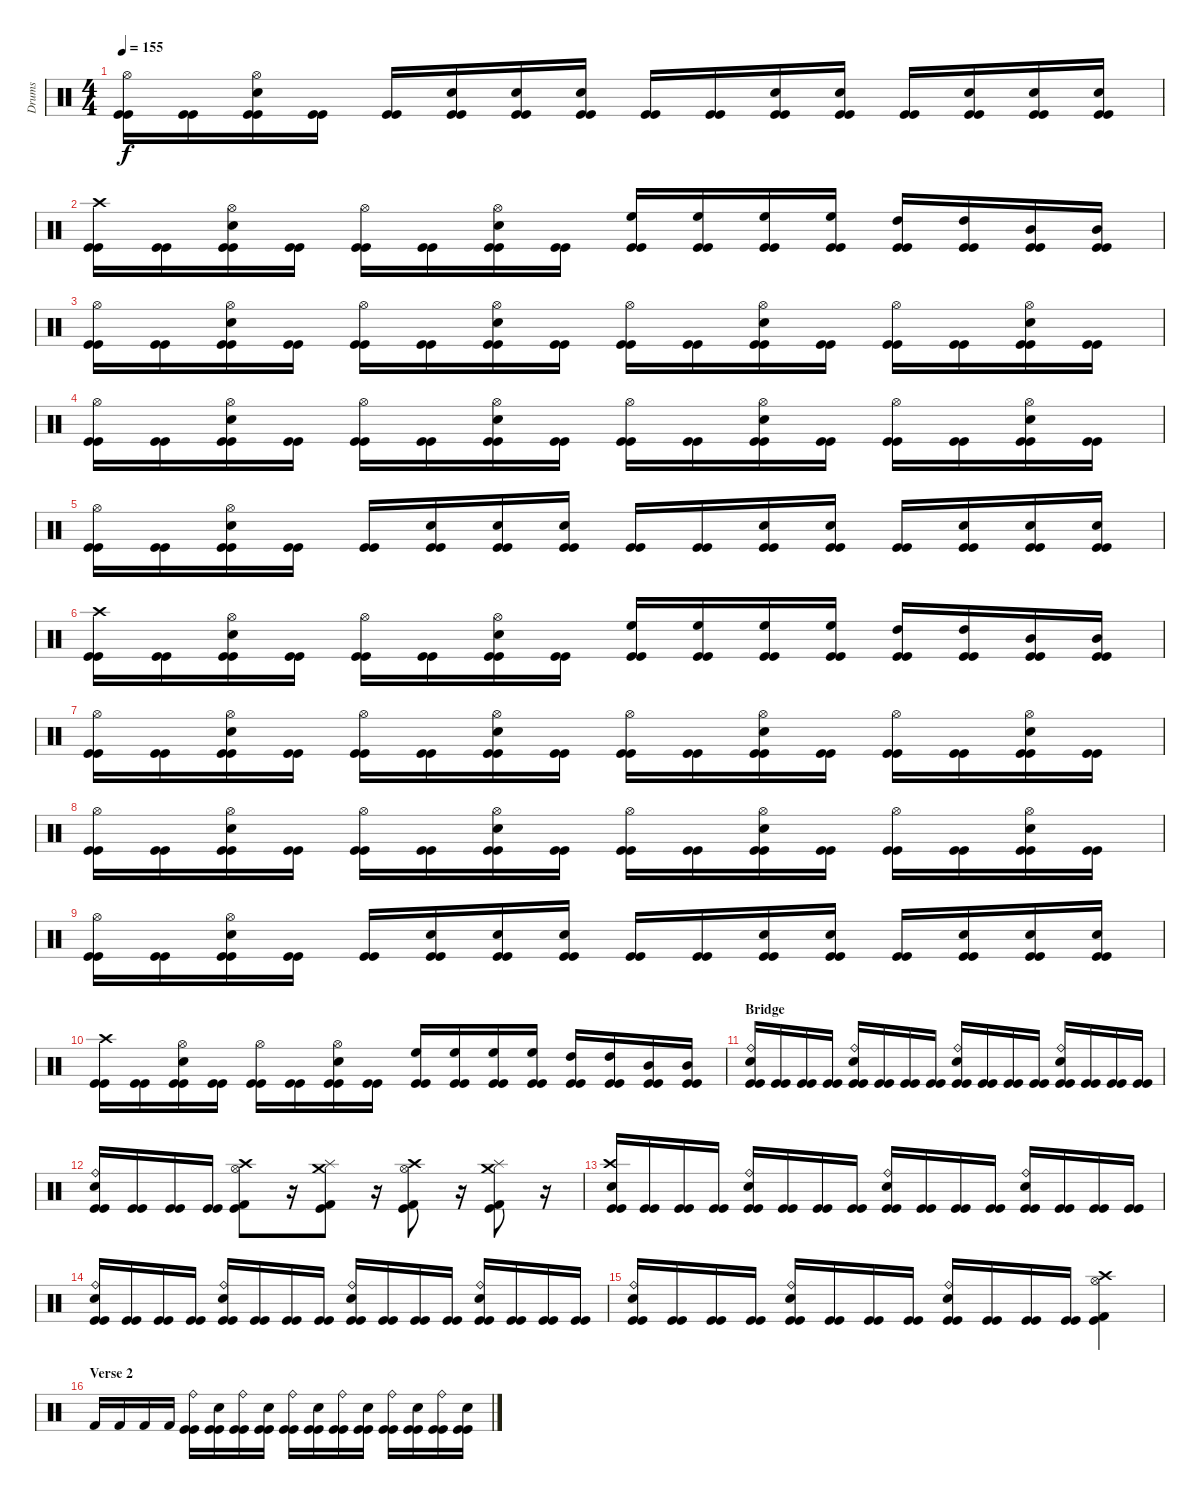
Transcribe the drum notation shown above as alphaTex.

\track ("Drums" "Drums") {instrument percussion}
\staff {score}
\articulation defaults
\ts (4 4)
\tempo 155
\clef neutral
\ks c
("Hi-Hat (open)" "Kick (hit)" "Kick (hit)").16{dy f} ("Kick (hit)" "Kick (hit)").16 ("Hi-Hat (open)" "Electric Snare (hit)" "Kick (hit)" "Kick (hit)").16 ("Kick (hit)" "Kick (hit)").16 ("Kick (hit)" "Kick (hit)").16 ("Electric Snare (hit)" "Kick (hit)" "Kick (hit)").16 ("Electric Snare (hit)" "Kick (hit)" "Kick (hit)").16 ("Electric Snare (hit)" "Kick (hit)" "Kick (hit)").16 ("Kick (hit)" "Kick (hit)").16 ("Kick (hit)" "Kick (hit)").16 ("Electric Snare (hit)" "Kick (hit)" "Kick (hit)").16 ("Electric Snare (hit)" "Kick (hit)" "Kick (hit)").16 ("Kick (hit)" "Kick (hit)").16 ("Electric Snare (hit)" "Kick (hit)" "Kick (hit)").16 ("Electric Snare (hit)" "Kick (hit)" "Kick (hit)").16 ("Electric Snare (hit)" "Kick (hit)" "Kick (hit)").16 |
("Crash high (hit)" "Kick (hit)" "Kick (hit)").16 ("Kick (hit)" "Kick (hit)").16 ("Hi-Hat (open)" "Electric Snare (hit)" "Kick (hit)" "Kick (hit)").16 ("Kick (hit)" "Kick (hit)").16 ("Hi-Hat (open)" "Kick (hit)" "Kick (hit)").16 ("Kick (hit)" "Kick (hit)").16 ("Hi-Hat (open)" "Electric Snare (hit)" "Kick (hit)" "Kick (hit)").16 ("Kick (hit)" "Kick (hit)").16 ("High Floor Tom (hit)" "Kick (hit)" "Kick (hit)").16 ("High Floor Tom (hit)" "Kick (hit)" "Kick (hit)").16 ("High Floor Tom (hit)" "Kick (hit)" "Kick (hit)").16 ("High Floor Tom (hit)" "Kick (hit)" "Kick (hit)").16 ("High Tom (hit)" "Kick (hit)" "Kick (hit)").16 ("High Tom (hit)" "Kick (hit)" "Kick (hit)").16 ("Mid Tom (hit)" "Kick (hit)" "Kick (hit)").16 ("Mid Tom (hit)" "Kick (hit)" "Kick (hit)").16 |
("Hi-Hat (open)" "Kick (hit)" "Kick (hit)").16 ("Kick (hit)" "Kick (hit)").16 ("Hi-Hat (open)" "Electric Snare (hit)" "Kick (hit)" "Kick (hit)").16 ("Kick (hit)" "Kick (hit)").16 ("Hi-Hat (open)" "Kick (hit)" "Kick (hit)").16 ("Kick (hit)" "Kick (hit)").16 ("Hi-Hat (open)" "Electric Snare (hit)" "Kick (hit)" "Kick (hit)").16 ("Kick (hit)" "Kick (hit)").16 ("Hi-Hat (open)" "Kick (hit)" "Kick (hit)").16 ("Kick (hit)" "Kick (hit)").16 ("Hi-Hat (open)" "Electric Snare (hit)" "Kick (hit)" "Kick (hit)").16 ("Kick (hit)" "Kick (hit)").16 ("Hi-Hat (open)" "Kick (hit)" "Kick (hit)").16 ("Kick (hit)" "Kick (hit)").16 ("Hi-Hat (open)" "Electric Snare (hit)" "Kick (hit)" "Kick (hit)").16 ("Kick (hit)" "Kick (hit)").16 |
("Hi-Hat (open)" "Kick (hit)" "Kick (hit)").16 ("Kick (hit)" "Kick (hit)").16 ("Hi-Hat (open)" "Electric Snare (hit)" "Kick (hit)" "Kick (hit)").16 ("Kick (hit)" "Kick (hit)").16 ("Hi-Hat (open)" "Kick (hit)" "Kick (hit)").16 ("Kick (hit)" "Kick (hit)").16 ("Hi-Hat (open)" "Electric Snare (hit)" "Kick (hit)" "Kick (hit)").16 ("Kick (hit)" "Kick (hit)").16 ("Hi-Hat (open)" "Kick (hit)" "Kick (hit)").16 ("Kick (hit)" "Kick (hit)").16 ("Hi-Hat (open)" "Electric Snare (hit)" "Kick (hit)" "Kick (hit)").16 ("Kick (hit)" "Kick (hit)").16 ("Hi-Hat (open)" "Kick (hit)" "Kick (hit)").16 ("Kick (hit)" "Kick (hit)").16 ("Hi-Hat (open)" "Electric Snare (hit)" "Kick (hit)" "Kick (hit)").16 ("Kick (hit)" "Kick (hit)").16 |
("Hi-Hat (open)" "Kick (hit)" "Kick (hit)").16 ("Kick (hit)" "Kick (hit)").16 ("Hi-Hat (open)" "Electric Snare (hit)" "Kick (hit)" "Kick (hit)").16 ("Kick (hit)" "Kick (hit)").16 ("Kick (hit)" "Kick (hit)").16 ("Electric Snare (hit)" "Kick (hit)" "Kick (hit)").16 ("Electric Snare (hit)" "Kick (hit)" "Kick (hit)").16 ("Electric Snare (hit)" "Kick (hit)" "Kick (hit)").16 ("Kick (hit)" "Kick (hit)").16 ("Kick (hit)" "Kick (hit)").16 ("Electric Snare (hit)" "Kick (hit)" "Kick (hit)").16 ("Electric Snare (hit)" "Kick (hit)" "Kick (hit)").16 ("Kick (hit)" "Kick (hit)").16 ("Electric Snare (hit)" "Kick (hit)" "Kick (hit)").16 ("Electric Snare (hit)" "Kick (hit)" "Kick (hit)").16 ("Electric Snare (hit)" "Kick (hit)" "Kick (hit)").16 |
("Crash high (hit)" "Kick (hit)" "Kick (hit)").16 ("Kick (hit)" "Kick (hit)").16 ("Hi-Hat (open)" "Electric Snare (hit)" "Kick (hit)" "Kick (hit)").16 ("Kick (hit)" "Kick (hit)").16 ("Hi-Hat (open)" "Kick (hit)" "Kick (hit)").16 ("Kick (hit)" "Kick (hit)").16 ("Hi-Hat (open)" "Electric Snare (hit)" "Kick (hit)" "Kick (hit)").16 ("Kick (hit)" "Kick (hit)").16 ("High Floor Tom (hit)" "Kick (hit)" "Kick (hit)").16 ("High Floor Tom (hit)" "Kick (hit)" "Kick (hit)").16 ("High Floor Tom (hit)" "Kick (hit)" "Kick (hit)").16 ("High Floor Tom (hit)" "Kick (hit)" "Kick (hit)").16 ("High Tom (hit)" "Kick (hit)" "Kick (hit)").16 ("High Tom (hit)" "Kick (hit)" "Kick (hit)").16 ("Mid Tom (hit)" "Kick (hit)" "Kick (hit)").16 ("Mid Tom (hit)" "Kick (hit)" "Kick (hit)").16 |
("Hi-Hat (open)" "Kick (hit)" "Kick (hit)").16 ("Kick (hit)" "Kick (hit)").16 ("Hi-Hat (open)" "Electric Snare (hit)" "Kick (hit)" "Kick (hit)").16 ("Kick (hit)" "Kick (hit)").16 ("Hi-Hat (open)" "Kick (hit)" "Kick (hit)").16 ("Kick (hit)" "Kick (hit)").16 ("Hi-Hat (open)" "Electric Snare (hit)" "Kick (hit)" "Kick (hit)").16 ("Kick (hit)" "Kick (hit)").16 ("Hi-Hat (open)" "Kick (hit)" "Kick (hit)").16 ("Kick (hit)" "Kick (hit)").16 ("Hi-Hat (open)" "Electric Snare (hit)" "Kick (hit)" "Kick (hit)").16 ("Kick (hit)" "Kick (hit)").16 ("Hi-Hat (open)" "Kick (hit)" "Kick (hit)").16 ("Kick (hit)" "Kick (hit)").16 ("Hi-Hat (open)" "Electric Snare (hit)" "Kick (hit)" "Kick (hit)").16 ("Kick (hit)" "Kick (hit)").16 |
("Hi-Hat (open)" "Kick (hit)" "Kick (hit)").16 ("Kick (hit)" "Kick (hit)").16 ("Hi-Hat (open)" "Electric Snare (hit)" "Kick (hit)" "Kick (hit)").16 ("Kick (hit)" "Kick (hit)").16 ("Hi-Hat (open)" "Kick (hit)" "Kick (hit)").16 ("Kick (hit)" "Kick (hit)").16 ("Hi-Hat (open)" "Electric Snare (hit)" "Kick (hit)" "Kick (hit)").16 ("Kick (hit)" "Kick (hit)").16 ("Hi-Hat (open)" "Kick (hit)" "Kick (hit)").16 ("Kick (hit)" "Kick (hit)").16 ("Hi-Hat (open)" "Electric Snare (hit)" "Kick (hit)" "Kick (hit)").16 ("Kick (hit)" "Kick (hit)").16 ("Hi-Hat (open)" "Kick (hit)" "Kick (hit)").16 ("Kick (hit)" "Kick (hit)").16 ("Hi-Hat (open)" "Electric Snare (hit)" "Kick (hit)" "Kick (hit)").16 ("Kick (hit)" "Kick (hit)").16 |
("Hi-Hat (open)" "Kick (hit)" "Kick (hit)").16 ("Kick (hit)" "Kick (hit)").16 ("Hi-Hat (open)" "Electric Snare (hit)" "Kick (hit)" "Kick (hit)").16 ("Kick (hit)" "Kick (hit)").16 ("Kick (hit)" "Kick (hit)").16 ("Electric Snare (hit)" "Kick (hit)" "Kick (hit)").16 ("Electric Snare (hit)" "Kick (hit)" "Kick (hit)").16 ("Electric Snare (hit)" "Kick (hit)" "Kick (hit)").16 ("Kick (hit)" "Kick (hit)").16 ("Kick (hit)" "Kick (hit)").16 ("Electric Snare (hit)" "Kick (hit)" "Kick (hit)").16 ("Electric Snare (hit)" "Kick (hit)" "Kick (hit)").16 ("Kick (hit)" "Kick (hit)").16 ("Electric Snare (hit)" "Kick (hit)" "Kick (hit)").16 ("Electric Snare (hit)" "Kick (hit)" "Kick (hit)").16 ("Electric Snare (hit)" "Kick (hit)" "Kick (hit)").16 |
("Crash high (hit)" "Kick (hit)" "Kick (hit)").16 ("Kick (hit)" "Kick (hit)").16 ("Hi-Hat (open)" "Electric Snare (hit)" "Kick (hit)" "Kick (hit)").16 ("Kick (hit)" "Kick (hit)").16 ("Hi-Hat (open)" "Kick (hit)" "Kick (hit)").16 ("Kick (hit)" "Kick (hit)").16 ("Hi-Hat (open)" "Electric Snare (hit)" "Kick (hit)" "Kick (hit)").16 ("Kick (hit)" "Kick (hit)").16 ("High Floor Tom (hit)" "Kick (hit)" "Kick (hit)").16 ("High Floor Tom (hit)" "Kick (hit)" "Kick (hit)").16 ("High Floor Tom (hit)" "Kick (hit)" "Kick (hit)").16 ("High Floor Tom (hit)" "Kick (hit)" "Kick (hit)").16 ("High Tom (hit)" "Kick (hit)" "Kick (hit)").16 ("High Tom (hit)" "Kick (hit)" "Kick (hit)").16 ("Mid Tom (hit)" "Kick (hit)" "Kick (hit)").16 ("Mid Tom (hit)" "Kick (hit)" "Kick (hit)").16 |
\section ("" "Bridge")
("Ride (bell)" "Snare (hit) 2" "Kick (hit)" "Kick (hit)").16 ("Kick (hit)" "Kick (hit)").16 ("Kick (hit)" "Kick (hit)").16 ("Kick (hit)" "Kick (hit)").16 ("Ride (bell)" "Snare (hit) 2" "Kick (hit)" "Kick (hit)").16 ("Kick (hit)" "Kick (hit)").16 ("Kick (hit)" "Kick (hit)").16 ("Kick (hit)" "Kick (hit)").16 ("Ride (bell)" "Snare (hit) 2" "Kick (hit)" "Kick (hit)").16 ("Kick (hit)" "Kick (hit)").16 ("Kick (hit)" "Kick (hit)").16 ("Kick (hit)" "Kick (hit)").16 ("Ride (bell)" "Snare (hit) 2" "Kick (hit)" "Kick (hit)").16 ("Kick (hit)" "Kick (hit)").16 ("Kick (hit)" "Kick (hit)").16 ("Kick (hit)" "Kick (hit)").16 |
("Ride (bell)" "Snare (hit) 2" "Kick (hit)" "Kick (hit)").16 ("Kick (hit)" "Kick (hit)").16 ("Kick (hit)" "Kick (hit)").16 ("Kick (hit)" "Kick (hit)").16 ("Crash high (hit)" "Hi-Hat (open)" "Kick (hit)" "Kick (hit) 2").8 r.16 ("Crash medium (hit)" "Splash (hit)" "Kick (hit)" "Kick (hit) 2").8 r.16 ("Crash high (hit)" "Hi-Hat (open)" "Kick (hit)" "Kick (hit) 2").8 r.16 ("Crash medium (hit)" "Splash (hit)" "Kick (hit)" "Kick (hit) 2").8 r.16 |
("Crash high (hit)" "Snare (hit) 2" "Kick (hit)" "Kick (hit)").16 ("Kick (hit)" "Kick (hit)").16 ("Kick (hit)" "Kick (hit)").16 ("Kick (hit)" "Kick (hit)").16 ("Ride (bell)" "Snare (hit) 2" "Kick (hit)" "Kick (hit)").16 ("Kick (hit)" "Kick (hit)").16 ("Kick (hit)" "Kick (hit)").16 ("Kick (hit)" "Kick (hit)").16 ("Ride (bell)" "Snare (hit) 2" "Kick (hit)" "Kick (hit)").16 ("Kick (hit)" "Kick (hit)").16 ("Kick (hit)" "Kick (hit)").16 ("Kick (hit)" "Kick (hit)").16 ("Ride (bell)" "Snare (hit) 2" "Kick (hit)" "Kick (hit)").16 ("Kick (hit)" "Kick (hit)").16 ("Kick (hit)" "Kick (hit)").16 ("Kick (hit)" "Kick (hit)").16 |
("Ride (bell)" "Snare (hit) 2" "Kick (hit)" "Kick (hit)").16 ("Kick (hit)" "Kick (hit)").16 ("Kick (hit)" "Kick (hit)").16 ("Kick (hit)" "Kick (hit)").16 ("Ride (bell)" "Snare (hit) 2" "Kick (hit)" "Kick (hit)").16 ("Kick (hit)" "Kick (hit)").16 ("Kick (hit)" "Kick (hit)").16 ("Kick (hit)" "Kick (hit)").16 ("Ride (bell)" "Snare (hit) 2" "Kick (hit)" "Kick (hit)").16 ("Kick (hit)" "Kick (hit)").16 ("Kick (hit)" "Kick (hit)").16 ("Kick (hit)" "Kick (hit)").16 ("Ride (bell)" "Snare (hit) 2" "Kick (hit)" "Kick (hit)").16 ("Kick (hit)" "Kick (hit)").16 ("Kick (hit)" "Kick (hit)").16 ("Kick (hit)" "Kick (hit)").16 |
("Ride (bell)" "Snare (hit) 2" "Kick (hit)" "Kick (hit)").16 ("Kick (hit)" "Kick (hit)").16 ("Kick (hit)" "Kick (hit)").16 ("Kick (hit)" "Kick (hit)").16 ("Ride (bell)" "Snare (hit) 2" "Kick (hit)" "Kick (hit)").16 ("Kick (hit)" "Kick (hit)").16 ("Kick (hit)" "Kick (hit)").16 ("Kick (hit)" "Kick (hit)").16 ("Ride (bell)" "Snare (hit) 2" "Kick (hit)" "Kick (hit)").16 ("Kick (hit)" "Kick (hit)").16 ("Kick (hit)" "Kick (hit)").16 ("Kick (hit)" "Kick (hit)").16 ("Crash high (hit)" "Hi-Hat (open)" "Kick (hit)" "Kick (hit) 2").4 |
\section ("" "Verse 2")
"Kick (hit) 2".16 "Kick (hit) 2".16 "Kick (hit) 2".16 "Kick (hit) 2".16 ("Ride (bell)" "Kick (hit)" "Kick (hit)").16 ("Electric Snare (hit)" "Kick (hit)" "Kick (hit)").16 ("Ride (bell)" "Kick (hit)" "Kick (hit)").16 ("Electric Snare (hit)" "Kick (hit)" "Kick (hit)").16 ("Ride (bell)" "Kick (hit)" "Kick (hit)").16 ("Electric Snare (hit)" "Kick (hit)" "Kick (hit)").16 ("Ride (bell)" "Kick (hit)" "Kick (hit)").16 ("Electric Snare (hit)" "Kick (hit)" "Kick (hit)").16 ("Ride (bell)" "Kick (hit)" "Kick (hit)").16 ("Electric Snare (hit)" "Kick (hit)" "Kick (hit)").16 ("Ride (bell)" "Kick (hit)" "Kick (hit)").16 ("Electric Snare (hit)" "Kick (hit)" "Kick (hit)").16
